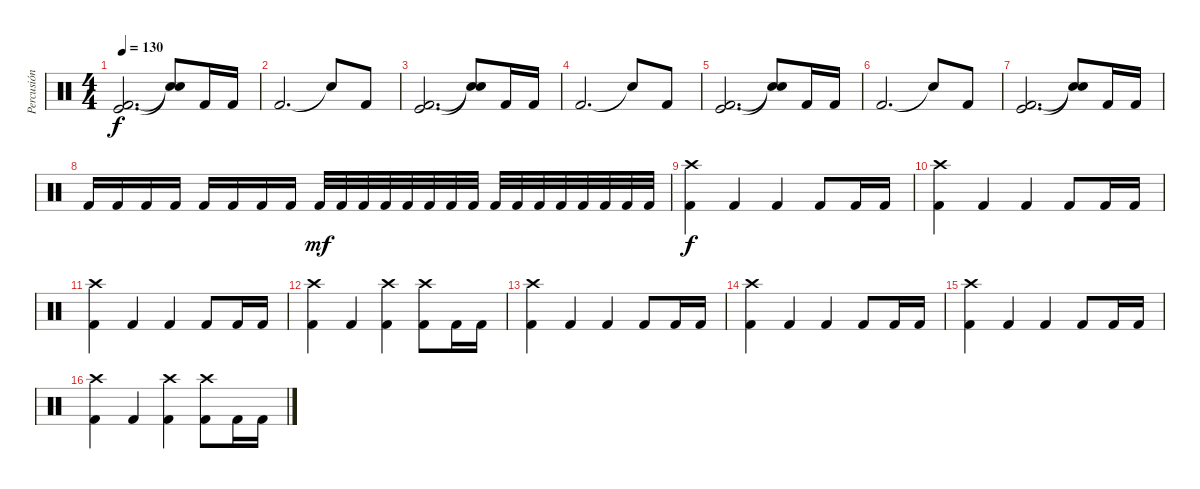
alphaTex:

\track ("Percusión" "Percusión") {instrument percussion}
\staff {score}
\articulation defaults
\ts (4 4)
\tempo 130
\clef neutral
\ks c
("Kick (hit) 2" "Kick (hit)").2{d dy f} ("Snare (hit)"{t} "Snare (hit)"{t}).8 "Kick (hit) 2".16 "Kick (hit) 2".16 |
"Kick (hit) 2".2{d} "Snare (hit)"{t}.8 "Kick (hit) 2".8 |
("Kick (hit) 2" "Kick (hit)").2{d} ("Snare (hit)"{t} "Snare (hit)"{t}).8 "Kick (hit) 2".16 "Kick (hit) 2".16 |
"Kick (hit) 2".2{d} "Snare (hit)"{t}.8 "Kick (hit) 2".8 |
("Kick (hit) 2" "Kick (hit)").2{d} ("Snare (hit)"{t} "Snare (hit)"{t}).8 "Kick (hit) 2".16 "Kick (hit) 2".16 |
"Kick (hit) 2".2{d} "Snare (hit)"{t}.8 "Kick (hit) 2".8 |
("Kick (hit) 2" "Kick (hit)").2{d} ("Snare (hit)"{t} "Snare (hit)"{t}).8 "Kick (hit) 2".16 "Kick (hit) 2".16 |
"Kick (hit) 2".16 "Kick (hit) 2".16 "Kick (hit) 2".16 "Kick (hit) 2".16 "Kick (hit) 2".16 "Kick (hit) 2".16 "Kick (hit) 2".16 "Kick (hit) 2".16 "Kick (hit) 2".32{dy mf} "Kick (hit) 2".32 "Kick (hit) 2".32 "Kick (hit) 2".32 "Kick (hit) 2".32 "Kick (hit) 2".32 "Kick (hit) 2".32 "Kick (hit) 2".32 "Kick (hit) 2".32 "Kick (hit) 2".32 "Kick (hit) 2".32 "Kick (hit) 2".32 "Kick (hit) 2".32 "Kick (hit) 2".32 "Kick (hit) 2".32 "Kick (hit) 2".32 |
("Crash high (hit)" "Kick (hit) 2").4{dy f} "Kick (hit) 2".4 "Kick (hit) 2".4 "Kick (hit) 2".8 "Kick (hit) 2".16 "Kick (hit) 2".16 |
("Crash high (hit)" "Kick (hit) 2").4 "Kick (hit) 2".4 "Kick (hit) 2".4 "Kick (hit) 2".8 "Kick (hit) 2".16 "Kick (hit) 2".16 |
("Crash high (hit)" "Kick (hit) 2").4 "Kick (hit) 2".4 "Kick (hit) 2".4 "Kick (hit) 2".8 "Kick (hit) 2".16 "Kick (hit) 2".16 |
("Crash high (hit)" "Kick (hit) 2").4 "Kick (hit) 2".4 ("Crash high (hit)" "Kick (hit) 2").4 ("Crash high (hit)" "Kick (hit) 2").8 "Kick (hit) 2".16 "Kick (hit) 2".16 |
("Crash high (hit)" "Kick (hit) 2").4 "Kick (hit) 2".4 "Kick (hit) 2".4 "Kick (hit) 2".8 "Kick (hit) 2".16 "Kick (hit) 2".16 |
("Crash high (hit)" "Kick (hit) 2").4 "Kick (hit) 2".4 "Kick (hit) 2".4 "Kick (hit) 2".8 "Kick (hit) 2".16 "Kick (hit) 2".16 |
("Crash high (hit)" "Kick (hit) 2").4 "Kick (hit) 2".4 "Kick (hit) 2".4 "Kick (hit) 2".8 "Kick (hit) 2".16 "Kick (hit) 2".16 |
("Crash high (hit)" "Kick (hit) 2").4 "Kick (hit) 2".4 ("Crash high (hit)" "Kick (hit) 2").4 ("Crash high (hit)" "Kick (hit) 2").8 "Kick (hit) 2".16 "Kick (hit) 2".16
